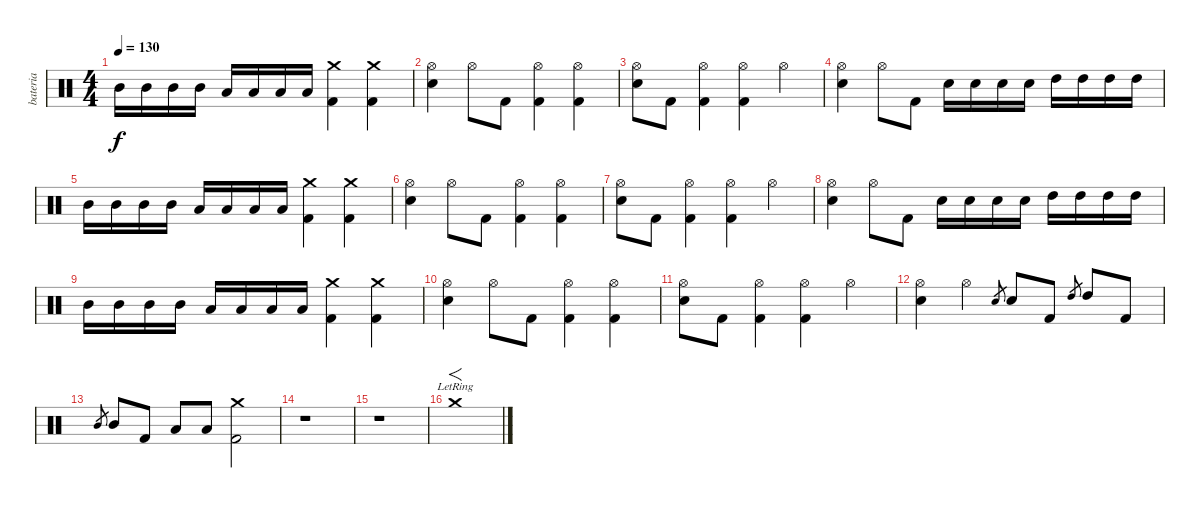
\track ("bateria" "bateria") {instrument percussion}
\staff {score}
\articulation defaults
\ts (4 4)
\tempo 130
\clef neutral
\ks c "Mid Tom (hit)".16{dy f} "Mid Tom (hit)".16 "Mid Tom (hit)".16 "Mid Tom (hit)".16 "Low Tom (hit)".16 "Low Tom (hit)".16 "Low Tom (hit)".16 "Low Tom (hit)".16
("Crash medium (hit)" "Kick (hit) 2").4 ("Crash medium (hit)" "Kick (hit) 2").4 |
("Hi-Hat (open)" "Snare (hit) 2").4 "Hi-Hat (open)".8 "Kick (hit) 2".8 ("Hi-Hat (open)" "Kick (hit) 2").4 ("Hi-Hat (open)" "Kick (hit) 2").4 |
("Hi-Hat (open)" "Snare (hit) 2").8 "Kick (hit) 2".8 ("Hi-Hat (open)" "Kick (hit) 2").4 ("Hi-Hat (open)" "Kick (hit) 2").4 "Hi-Hat (open)".4 |
("Hi-Hat (open)" "Snare (hit) 2").4 "Hi-Hat (open)".8 "Kick (hit) 2".8 "Snare (hit) 2".16 "Snare (hit) 2".16 "Snare (hit) 2".16 "Snare (hit) 2".16 "High Tom (hit)".16 "High Tom (hit)".16 "High Tom (hit)".16 "High Tom (hit)".16 |
"Mid Tom (hit)".16 "Mid Tom (hit)".16 "Mid Tom (hit)".16 "Mid Tom (hit)".16 "Low Tom (hit)".16 "Low Tom (hit)".16 "Low Tom (hit)".16 "Low Tom (hit)".16 ("Crash medium (hit)" "Kick (hit) 2").4 ("Crash medium (hit)" "Kick (hit) 2").4 |
("Hi-Hat (open)" "Snare (hit) 2").4 "Hi-Hat (open)".8 "Kick (hit) 2".8 ("Hi-Hat (open)" "Kick (hit) 2").4 ("Hi-Hat (open)" "Kick (hit) 2").4 |
("Hi-Hat (open)" "Snare (hit) 2").8 "Kick (hit) 2".8 ("Hi-Hat (open)" "Kick (hit) 2").4 ("Hi-Hat (open)" "Kick (hit) 2").4 "Hi-Hat (open)".4 |
("Hi-Hat (open)" "Snare (hit) 2").4 "Hi-Hat (open)".8 "Kick (hit) 2".8 "Snare (hit) 2".16 "Snare (hit) 2".16 "Snare (hit) 2".16 "Snare (hit) 2".16 "High Tom (hit)".16 "High Tom (hit)".16 "High Tom (hit)".16 "High Tom (hit)".16 |
"Mid Tom (hit)".16 "Mid Tom (hit)".16 "Mid Tom (hit)".16 "Mid Tom (hit)".16 "Low Tom (hit)".16 "Low Tom (hit)".16 "Low Tom (hit)".16 "Low Tom (hit)".16 ("Crash medium (hit)" "Kick (hit) 2").4 ("Crash medium (hit)" "Kick (hit) 2").4 |
("Hi-Hat (open)" "Snare (hit) 2").4 "Hi-Hat (open)".8 "Kick (hit) 2".8 ("Hi-Hat (open)" "Kick (hit) 2").4 ("Hi-Hat (open)" "Kick (hit) 2").4 |
("Hi-Hat (open)" "Snare (hit) 2").8 "Kick (hit) 2".8 ("Hi-Hat (open)" "Kick (hit) 2").4 ("Hi-Hat (open)" "Kick (hit) 2").4 "Hi-Hat (open)".4 |
("Hi-Hat (open)" "Snare (hit) 2").4 "Hi-Hat (open)".4 "Snare (hit) 2".8{gr} "Snare (hit) 2".8 "Kick (hit) 2".8 "High Tom (hit)".8{gr} "High Tom (hit)".8 "Kick (hit) 2".8 |
"Mid Tom (hit)".8{gr} "Mid Tom (hit)".8 "Kick (hit) 2".8 "Low Tom (hit)".8 "Low Tom (hit)".8 ("Crash medium (hit)" "Kick (hit) 2").2 |
r.1 |
r.1 |
"Crash medium (hit)"{lr}.1{f}
